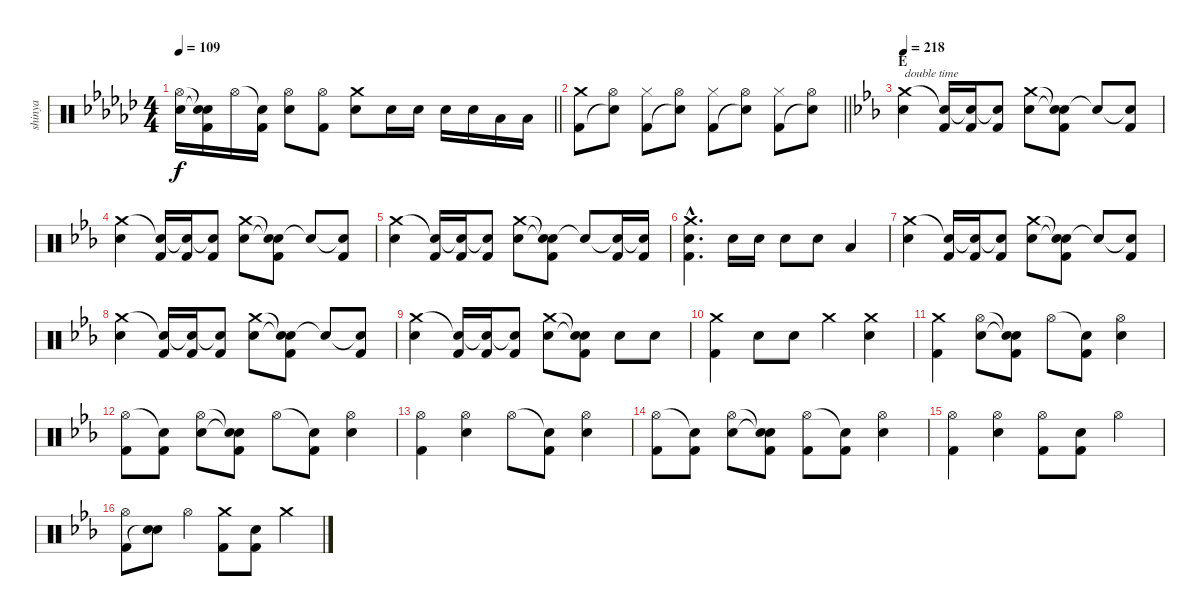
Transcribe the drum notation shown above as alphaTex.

\track ("shinya" "shinya") {instrument percussion}
\staff {score}
\articulation defaults
\ts (4 4)
\tempo 109
\clef neutral
\barLineRight lightlight
\ks ebminor
("Hi-Hat (open)" "Electric Snare (hit)").16{dy f} ("Snare (hit)"{t} "Snare (hit)"{t} "Kick (hit) 2").16 "Hi-Hat (open)".16 ("Snare (hit)"{t} "Kick (hit) 2").16 ("Hi-Hat (open)" "Electric Snare (hit)").8 ("Hi-Hat (open)" "Kick (hit) 2").8 ("Crash medium (hit)" "Electric Snare (hit)").8 "Electric Snare (hit)".16 "Electric Snare (hit)".16 "Electric Snare (hit)".16 "Electric Snare (hit)".16 "Low Tom (hit)".16 "Low Floor Tom (hit)".16 |
\barLineRight lightlight
("Crash medium (hit)" "Kick (hit) 2").8 ("Hi-Hat (open)" "Snare (hit)"{t}).8 ("Hi-Hat (closed)" "Kick (hit) 2").8 ("Hi-Hat (open)" "Snare (hit)"{t}).8 ("Hi-Hat (closed)" "Kick (hit) 2").8 ("Hi-Hat (open)" "Snare (hit)"{t}).8 ("Hi-Hat (closed)" "Kick (hit) 2").8 ("Hi-Hat (open)" "Snare (hit)"{t}).8 |
\section ("" "E")
\tempo 218
\ks eb
("Crash medium (hit)" "Electric Snare (hit)").4{txt "double time"} ("Snare (hit)"{t} "Kick (hit) 2").16 ("Snare (hit)"{t} "Kick (hit) 2").16 ("Snare (hit)"{t} "Kick (hit) 2").8 ("Crash medium (hit)" "Electric Snare (hit)").8 ("Snare (hit)"{t} "Snare (hit)"{t} "Kick (hit) 2").8 "Snare (hit)"{t}.8 ("Snare (hit)"{t} "Kick (hit) 2").8 |
("Crash medium (hit)" "Electric Snare (hit)").4 ("Snare (hit)"{t} "Kick (hit) 2").16 ("Snare (hit)"{t} "Kick (hit) 2").16 ("Snare (hit)"{t} "Kick (hit) 2").8 ("Crash medium (hit)" "Electric Snare (hit)").8 ("Snare (hit)"{t} "Snare (hit)"{t} "Kick (hit) 2").8 "Snare (hit)"{t}.8 ("Snare (hit)"{t} "Kick (hit) 2").8 |
("Crash medium (hit)" "Electric Snare (hit)").4 ("Snare (hit)"{t} "Kick (hit) 2").16 ("Snare (hit)"{t} "Kick (hit) 2").16 ("Snare (hit)"{t} "Kick (hit) 2").8 ("Crash medium (hit)" "Electric Snare (hit)").8 ("Snare (hit)"{t} "Snare (hit)"{t} "Kick (hit) 2").8 "Snare (hit)"{t}.8 ("Snare (hit)"{t} "Kick (hit) 2").16 ("Snare (hit)"{t} "Kick (hit) 2").16 |
("Crash medium (hit)"{hac} "Electric Snare (hit)"{hac} "Kick (hit) 2"{hac}).4{d} "Electric Snare (hit)".16 "Electric Snare (hit)".16 "Electric Snare (hit)".8 "Electric Snare (hit)".8 "Low Floor Tom (hit)".4 |
("Crash medium (hit)" "Electric Snare (hit)").4 ("Snare (hit)"{t} "Kick (hit) 2").16 ("Snare (hit)"{t} "Kick (hit) 2").16 ("Snare (hit)"{t} "Kick (hit) 2").8 ("Crash medium (hit)" "Electric Snare (hit)").8 ("Snare (hit)"{t} "Snare (hit)"{t} "Kick (hit) 2").8 "Snare (hit)"{t}.8 ("Snare (hit)"{t} "Kick (hit) 2").8 |
("Crash medium (hit)" "Electric Snare (hit)").4 ("Snare (hit)"{t} "Kick (hit) 2").16 ("Snare (hit)"{t} "Kick (hit) 2").16 ("Snare (hit)"{t} "Kick (hit) 2").8 ("Crash medium (hit)" "Electric Snare (hit)").8 ("Snare (hit)"{t} "Snare (hit)"{t} "Kick (hit) 2").8 "Snare (hit)"{t}.8 ("Snare (hit)"{t} "Kick (hit) 2").8 |
("Crash medium (hit)" "Electric Snare (hit)").4 ("Snare (hit)"{t} "Kick (hit) 2").16 ("Snare (hit)"{t} "Kick (hit) 2").16 ("Snare (hit)"{t} "Kick (hit) 2").8 ("Crash medium (hit)" "Electric Snare (hit)").8 ("Snare (hit)"{t} "Snare (hit)"{t} "Kick (hit) 2").8 "Electric Snare (hit)".8 "Electric Snare (hit)".8 |
("Crash medium (hit)" "Kick (hit) 2").4 "Electric Snare (hit)".8 "Electric Snare (hit)".8 "Crash medium (hit)".4 ("Crash medium (hit)" "Electric Snare (hit)").4 |
("Crash medium (hit)" "Kick (hit) 2").4 ("Hi-Hat (open)" "Electric Snare (hit)").8 ("Snare (hit)"{t} "Snare (hit)"{t} "Kick (hit) 2").8 "Hi-Hat (open)".8 ("Snare (hit)"{t} "Kick (hit) 2").8 ("Hi-Hat (open)" "Electric Snare (hit)").4 |
("Hi-Hat (open)" "Kick (hit) 2").8 ("Snare (hit)"{t} "Kick (hit) 2").8 ("Hi-Hat (open)" "Electric Snare (hit)").8 ("Snare (hit)"{t} "Snare (hit)"{t} "Kick (hit) 2").8 "Hi-Hat (open)".8 ("Snare (hit)"{t} "Kick (hit) 2").8 ("Hi-Hat (open)" "Electric Snare (hit)").4 |
("Hi-Hat (open)" "Kick (hit) 2").4 ("Hi-Hat (open)" "Electric Snare (hit)").4 "Hi-Hat (open)".8 ("Snare (hit)"{t} "Kick (hit) 2").8 ("Hi-Hat (open)" "Electric Snare (hit)").4 |
("Hi-Hat (open)" "Kick (hit) 2").8 ("Snare (hit)"{t} "Kick (hit) 2").8 ("Hi-Hat (open)" "Electric Snare (hit)").8 ("Snare (hit)"{t} "Snare (hit)"{t} "Kick (hit) 2").8 ("Hi-Hat (open)" "Kick (hit) 2").8 ("Snare (hit)"{t} "Kick (hit) 2").8 ("Hi-Hat (open)" "Electric Snare (hit)").4 |
("Hi-Hat (open)" "Kick (hit) 2").4 ("Hi-Hat (open)" "Electric Snare (hit)").4 ("Hi-Hat (open)" "Kick (hit) 2").8 ("Electric Snare (hit)" "Kick (hit) 2").8 "Hi-Hat (open)".4 |
("Hi-Hat (open)" "Kick (hit) 2").8 ("Electric Snare (hit)" "Snare (hit)"{t}).8 "Hi-Hat (open)".4 ("Crash medium (hit)" "Kick (hit) 2").8 ("Electric Snare (hit)" "Kick (hit) 2").8 "Crash medium (hit)".4
